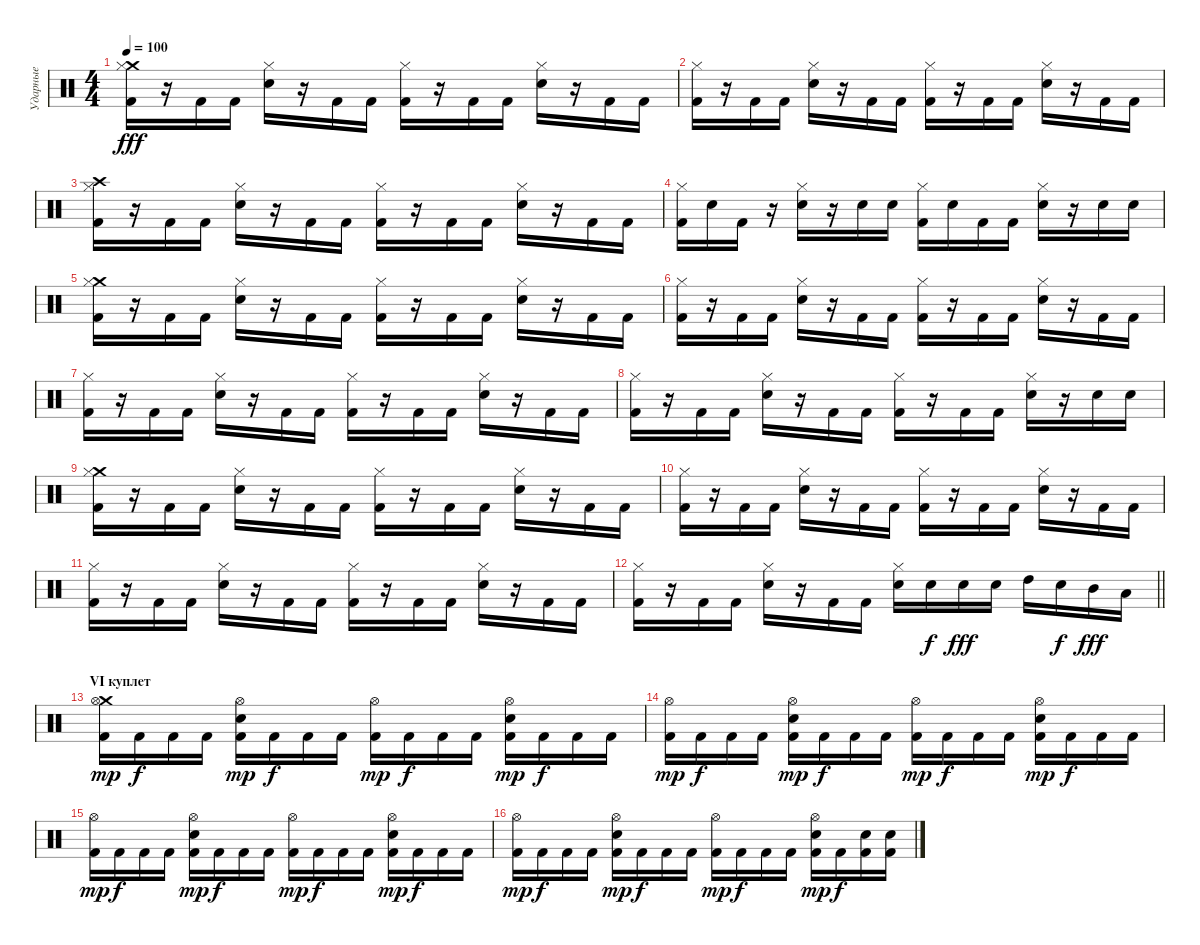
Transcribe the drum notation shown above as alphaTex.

\track ("Ударные" "Ударные") {instrument percussion}
\staff {score}
\articulation defaults
\ts (4 4)
\tempo 100
\clef neutral
\ks aminor
("Crash medium (hit)" "Kick (hit) 2" "Hi-Hat (closed)").16{dy fff} r.16 "Kick (hit) 2".16 "Kick (hit) 2".16 ("Electric Snare (hit)" "Hi-Hat (closed)").16 r.16 "Kick (hit) 2".16 "Kick (hit) 2".16 ("Kick (hit) 2" "Hi-Hat (closed)").16 r.16 "Kick (hit) 2".16 "Kick (hit) 2".16 ("Electric Snare (hit)" "Hi-Hat (closed)").16 r.16 "Kick (hit) 2".16 "Kick (hit) 2".16 |
("Kick (hit) 2" "Hi-Hat (closed)").16 r.16 "Kick (hit) 2".16 "Kick (hit) 2".16 ("Electric Snare (hit)" "Hi-Hat (closed)").16 r.16 "Kick (hit) 2".16 "Kick (hit) 2".16 ("Kick (hit) 2" "Hi-Hat (closed)").16 r.16 "Kick (hit) 2".16 "Kick (hit) 2".16 ("Electric Snare (hit)" "Hi-Hat (closed)").16 r.16 "Kick (hit) 2".16 "Kick (hit) 2".16 |
("Crash high (hit)" "Kick (hit) 2" "Hi-Hat (closed)").16 r.16 "Kick (hit) 2".16 "Kick (hit) 2".16 ("Electric Snare (hit)" "Hi-Hat (closed)").16 r.16 "Kick (hit) 2".16 "Kick (hit) 2".16 ("Kick (hit) 2" "Hi-Hat (closed)").16 r.16 "Kick (hit) 2".16 "Kick (hit) 2".16 ("Electric Snare (hit)" "Hi-Hat (closed)").16 r.16 "Kick (hit) 2".16 "Kick (hit) 2".16 |
("Kick (hit) 2" "Hi-Hat (closed)").16 "Electric Snare (hit)".16 "Kick (hit) 2".16 r.16 ("Electric Snare (hit)" "Hi-Hat (closed)").16 r.16 "Electric Snare (hit)".16 "Electric Snare (hit)".16 ("Kick (hit) 2" "Hi-Hat (closed)").16 "Electric Snare (hit)".16 "Kick (hit) 2".16 "Kick (hit) 2".16 ("Electric Snare (hit)" "Hi-Hat (closed)").16 r.16 "Electric Snare (hit)".16 "Electric Snare (hit)".16 |
("Crash medium (hit)" "Kick (hit) 2" "Hi-Hat (closed)").16 r.16 "Kick (hit) 2".16 "Kick (hit) 2".16 ("Electric Snare (hit)" "Hi-Hat (closed)").16 r.16 "Kick (hit) 2".16 "Kick (hit) 2".16 ("Kick (hit) 2" "Hi-Hat (closed)").16 r.16 "Kick (hit) 2".16 "Kick (hit) 2".16 ("Electric Snare (hit)" "Hi-Hat (closed)").16 r.16 "Kick (hit) 2".16 "Kick (hit) 2".16 |
("Kick (hit) 2" "Hi-Hat (closed)").16 r.16 "Kick (hit) 2".16 "Kick (hit) 2".16 ("Electric Snare (hit)" "Hi-Hat (closed)").16 r.16 "Kick (hit) 2".16 "Kick (hit) 2".16 ("Kick (hit) 2" "Hi-Hat (closed)").16 r.16 "Kick (hit) 2".16 "Kick (hit) 2".16 ("Electric Snare (hit)" "Hi-Hat (closed)").16 r.16 "Kick (hit) 2".16 "Kick (hit) 2".16 |
("Kick (hit) 2" "Hi-Hat (closed)").16 r.16 "Kick (hit) 2".16 "Kick (hit) 2".16 ("Electric Snare (hit)" "Hi-Hat (closed)").16 r.16 "Kick (hit) 2".16 "Kick (hit) 2".16 ("Kick (hit) 2" "Hi-Hat (closed)").16 r.16 "Kick (hit) 2".16 "Kick (hit) 2".16 ("Electric Snare (hit)" "Hi-Hat (closed)").16 r.16 "Kick (hit) 2".16 "Kick (hit) 2".16 |
("Kick (hit) 2" "Hi-Hat (closed)").16 r.16 "Kick (hit) 2".16 "Kick (hit) 2".16 ("Electric Snare (hit)" "Hi-Hat (closed)").16 r.16 "Kick (hit) 2".16 "Kick (hit) 2".16 ("Kick (hit) 2" "Hi-Hat (closed)").16 r.16 "Kick (hit) 2".16 "Kick (hit) 2".16 ("Electric Snare (hit)" "Hi-Hat (closed)").16 r.16 "Electric Snare (hit)".16 "Electric Snare (hit)".16 |
("Crash medium (hit)" "Kick (hit) 2" "Hi-Hat (closed)").16 r.16 "Kick (hit) 2".16 "Kick (hit) 2".16 ("Electric Snare (hit)" "Hi-Hat (closed)").16 r.16 "Kick (hit) 2".16 "Kick (hit) 2".16 ("Kick (hit) 2" "Hi-Hat (closed)").16 r.16 "Kick (hit) 2".16 "Kick (hit) 2".16 ("Electric Snare (hit)" "Hi-Hat (closed)").16 r.16 "Kick (hit) 2".16 "Kick (hit) 2".16 |
("Kick (hit) 2" "Hi-Hat (closed)").16 r.16 "Kick (hit) 2".16 "Kick (hit) 2".16 ("Electric Snare (hit)" "Hi-Hat (closed)").16 r.16 "Kick (hit) 2".16 "Kick (hit) 2".16 ("Kick (hit) 2" "Hi-Hat (closed)").16 r.16 "Kick (hit) 2".16 "Kick (hit) 2".16 ("Electric Snare (hit)" "Hi-Hat (closed)").16 r.16 "Kick (hit) 2".16 "Kick (hit) 2".16 |
("Kick (hit) 2" "Hi-Hat (closed)").16 r.16 "Kick (hit) 2".16 "Kick (hit) 2".16 ("Electric Snare (hit)" "Hi-Hat (closed)").16 r.16 "Kick (hit) 2".16 "Kick (hit) 2".16 ("Kick (hit) 2" "Hi-Hat (closed)").16 r.16 "Kick (hit) 2".16 "Kick (hit) 2".16 ("Electric Snare (hit)" "Hi-Hat (closed)").16 r.16 "Kick (hit) 2".16 "Kick (hit) 2".16 |
\barLineRight lightlight
("Kick (hit) 2" "Hi-Hat (closed)").16 r.16 "Kick (hit) 2".16 "Kick (hit) 2".16 ("Electric Snare (hit)" "Hi-Hat (closed)").16 r.16 "Kick (hit) 2".16 "Kick (hit) 2".16 ("Electric Snare (hit)" "Hi-Hat (closed)").16 "Electric Snare (hit)".16{dy f} "Electric Snare (hit)".16{dy fff} "Electric Snare (hit)".16 "High Tom (hit)".16 "Electric Snare (hit)".16{dy f} "Mid Tom (hit)".16{dy fff} "Low Tom (hit)".16 |
\section ("" "VI куплет")
("Crash medium (hit)" "Kick (hit) 2" "Hi-Hat (open)").16{dy mp} "Kick (hit) 2".16{dy f} "Kick (hit) 2".16 "Kick (hit) 2".16 ("Electric Snare (hit)" "Kick (hit) 2" "Hi-Hat (open)").16{dy mp} "Kick (hit) 2".16{dy f} "Kick (hit) 2".16 "Kick (hit) 2".16 ("Kick (hit) 2" "Hi-Hat (open)").16{dy mp} "Kick (hit) 2".16{dy f} "Kick (hit) 2".16 "Kick (hit) 2".16 ("Electric Snare (hit)" "Kick (hit) 2" "Hi-Hat (open)").16{dy mp} "Kick (hit) 2".16{dy f} "Kick (hit) 2".16 "Kick (hit) 2".16 |
("Kick (hit) 2" "Hi-Hat (open)").16{dy mp} "Kick (hit) 2".16{dy f} "Kick (hit) 2".16 "Kick (hit) 2".16 ("Electric Snare (hit)" "Kick (hit) 2" "Hi-Hat (open)").16{dy mp} "Kick (hit) 2".16{dy f} "Kick (hit) 2".16 "Kick (hit) 2".16 ("Kick (hit) 2" "Hi-Hat (open)").16{dy mp} "Kick (hit) 2".16{dy f} "Kick (hit) 2".16 "Kick (hit) 2".16 ("Electric Snare (hit)" "Kick (hit) 2" "Hi-Hat (open)").16{dy mp} "Kick (hit) 2".16{dy f} "Kick (hit) 2".16 "Kick (hit) 2".16 |
("Kick (hit) 2" "Hi-Hat (open)").16{dy mp} "Kick (hit) 2".16{dy f} "Kick (hit) 2".16 "Kick (hit) 2".16 ("Electric Snare (hit)" "Kick (hit) 2" "Hi-Hat (open)").16{dy mp} "Kick (hit) 2".16{dy f} "Kick (hit) 2".16 "Kick (hit) 2".16 ("Kick (hit) 2" "Hi-Hat (open)").16{dy mp} "Kick (hit) 2".16{dy f} "Kick (hit) 2".16 "Kick (hit) 2".16 ("Electric Snare (hit)" "Kick (hit) 2" "Hi-Hat (open)").16{dy mp} "Kick (hit) 2".16{dy f} "Kick (hit) 2".16 "Kick (hit) 2".16 |
("Kick (hit) 2" "Hi-Hat (open)").16{dy mp} "Kick (hit) 2".16{dy f} "Kick (hit) 2".16 "Kick (hit) 2".16 ("Electric Snare (hit)" "Kick (hit) 2" "Hi-Hat (open)").16{dy mp} "Kick (hit) 2".16{dy f} "Kick (hit) 2".16 "Kick (hit) 2".16 ("Kick (hit) 2" "Hi-Hat (open)").16{dy mp} "Kick (hit) 2".16{dy f} "Kick (hit) 2".16 "Kick (hit) 2".16 ("Electric Snare (hit)" "Kick (hit) 2" "Hi-Hat (open)").16{dy mp} "Kick (hit) 2".16{dy f} ("Electric Snare (hit)" "Kick (hit) 2").16 ("Electric Snare (hit)" "Kick (hit) 2").16
